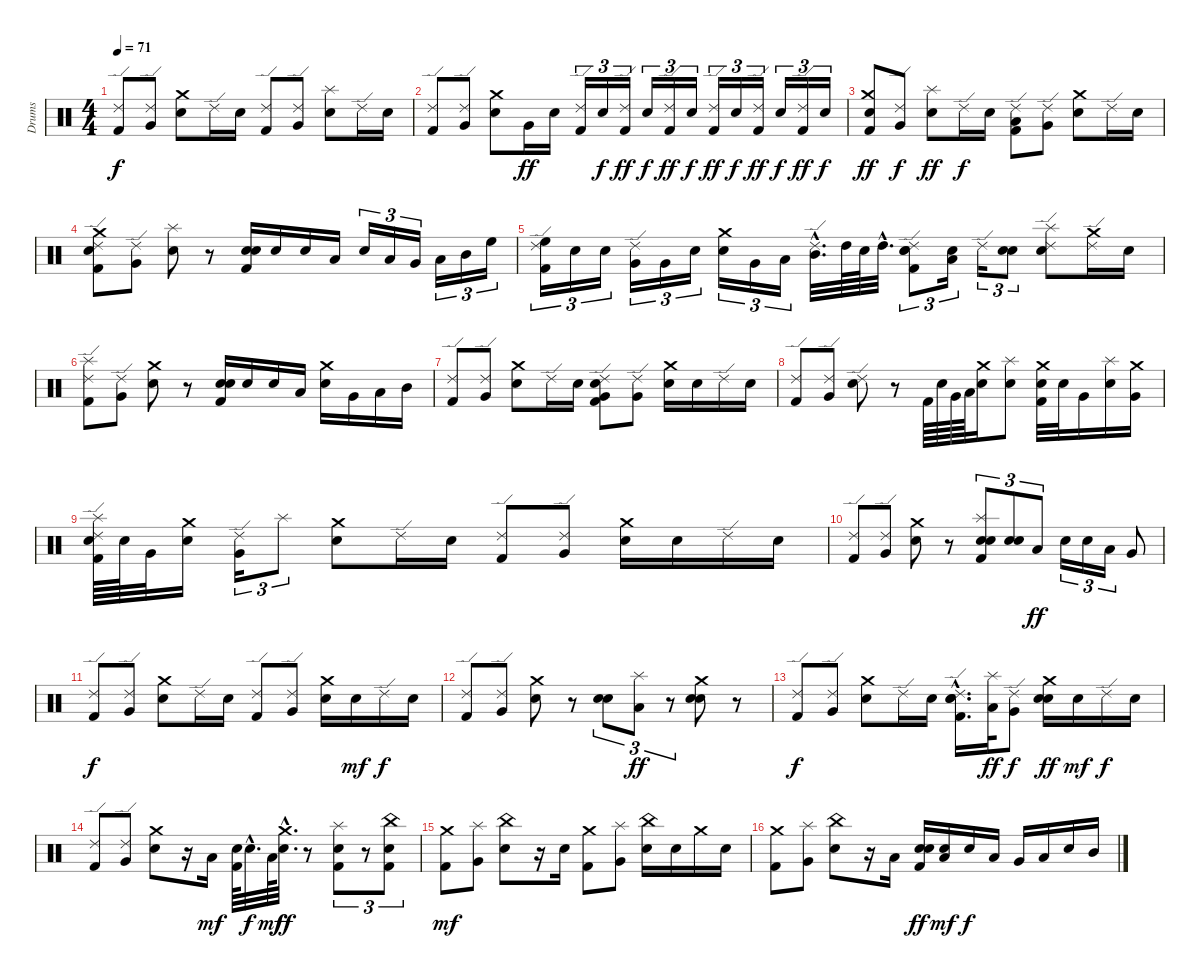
\track ("Drums" "Drums") {instrument percussion}
\staff {score}
\articulation defaults
\ts (4 4)
\tempo 71
\clef neutral
\ks c
("Ride (edge) 2" "Kick (hit) 2").8{dy f} ("Ride (edge) 2" "Very Low Tom (hit)").8 ("Crash medium (hit)" "Electric Snare (hit)").8 "Ride (edge) 2".16 "Electric Snare (hit)".16 ("Ride (edge) 2" "Kick (hit) 2").8 ("Ride (edge) 2" "Very Low Tom (hit)").8 ("Splash (hit)" "Electric Snare (hit)").8 "Ride (edge) 2".16 "Electric Snare (hit)".16 |
("Ride (edge) 2" "Kick (hit) 2").8 ("Ride (edge) 2" "Very Low Tom (hit)").8 ("Crash medium (hit)" "Electric Snare (hit)").8 "Very Low Tom (hit)".16{dy ff} "Electric Snare (hit)".16 ("Ride (edge) 2" "Kick (hit) 2").16{tu (3 2)} "Electric Snare (hit)".16{tu (3 2) dy f} ("Ride (edge) 2" "Kick (hit) 2").16{tu (3 2) dy ff} "Electric Snare (hit)".16{tu (3 2) dy f} ("Ride (edge) 2" "Kick (hit) 2").16{tu (3 2) dy ff} "Electric Snare (hit)".16{tu (3 2) dy f} ("Ride (edge) 2" "Kick (hit) 2").16{tu (3 2) dy ff} "Electric Snare (hit)".16{tu (3 2) dy f} ("Ride (edge) 2" "Kick (hit) 2").16{tu (3 2) dy ff} "Electric Snare (hit)".16{tu (3 2) dy f} ("Ride (edge) 2" "Kick (hit) 2").16{tu (3 2) dy ff} "Electric Snare (hit)".16{tu (3 2) dy f} |
("Crash medium (hit)" "Electric Snare (hit)" "Kick (hit) 2").8{dy ff} ("Ride (edge) 2" "Very Low Tom (hit)").8{dy f} ("Splash (hit)" "Electric Snare (hit)").8{dy ff} "Ride (edge) 2".16{dy f} "Electric Snare (hit)".16 ("Ride (edge) 2" "Low Floor Tom (hit)" "Kick (hit) 2").8 ("Ride (edge) 2" "Very Low Tom (hit)").8 ("Crash medium (hit)" "Electric Snare (hit)").8 "Ride (edge) 2".16 "Electric Snare (hit)".16 |
("Ride (edge) 2" "Crash medium (hit)" "Snare (hit) 2" "Kick (hit) 2").8 ("Ride (edge) 2" "Very Low Tom (hit)").8 ("Splash (hit)" "Electric Snare (hit)").8 r.8 ("Snare (hit) 2" "Electric Snare (hit)" "Kick (hit) 2").16 "Electric Snare (hit)".16 "Snare (hit) 2".16 "Low Floor Tom (hit)".16 "Snare (hit) 2".16{tu (3 2)} "Low Floor Tom (hit)".16{tu (3 2)} "Very Low Tom (hit)".16{tu (3 2)} "Low Tom (hit)".16{tu (3 2)} "Mid Tom (hit)".16{tu (3 2)} "High Floor Tom (hit)".16{tu (3 2)} |
("Ride (edge) 2" "High Floor Tom (hit)" "Kick (hit) 2").16{tu (3 2)} "Electric Snare (hit)".16{tu (3 2)} "Electric Snare (hit)".16{tu (3 2)} ("Ride (edge) 2" "Very Low Tom (hit)").16{tu (3 2)} "Very Low Tom (hit)".16{tu (3 2)} "Electric Snare (hit)".16{tu (3 2)} ("Crash medium (hit)" "Electric Snare (hit)").16{tu (3 2)} "Very Low Tom (hit)".16{tu (3 2)} "Low Tom (hit)".16{tu (3 2)} ("Ride (edge) 2"{hac} "Mid Tom (hit)"{hac}).32{d} "High Tom (hit)".64 "Electric Snare (hit)".64 "High Tom (hit)"{hac}.32{d} ("Ride (edge) 2" "Snare (hit) 2" "Electric Snare (hit)" "Kick (hit) 2").8{tu (3 2)} ("Snare (hit) 2" "Low Floor Tom (hit)").16{tu (3 2)} "Ride (edge) 2".16{tu (3 2)} ("Snare (hit) 2" "Electric Snare (hit)").8{tu (3 2)} ("Ride (edge) 2" "Splash (hit)" "Electric Snare (hit)").8 ("Ride (edge) 2" "Crash medium (hit)").16 "Electric Snare (hit)".16 |
("Ride (edge) 2" "Splash (hit)" "Kick (hit) 2").8 ("Ride (edge) 2" "Very Low Tom (hit)").8 ("Crash medium (hit)" "Electric Snare (hit)").8 r.8 ("Snare (hit) 2" "Electric Snare (hit)" "Kick (hit) 2").16 "Electric Snare (hit)".16 "Snare (hit) 2".16 "Low Floor Tom (hit)".16 ("Crash medium (hit)" "Snare (hit) 2").16 "Very Low Tom (hit)".16 "Low Tom (hit)".16 "Mid Tom (hit)".16 |
("Ride (edge) 2" "Kick (hit) 2").8 ("Ride (edge) 2" "Very Low Tom (hit)").8 ("Crash medium (hit)" "Electric Snare (hit)").8 "Ride (edge) 2".16 "Electric Snare (hit)".16 ("Ride (edge) 2" "Electric Snare (hit)" "Very Low Tom (hit)" "Kick (hit) 2").8 ("Ride (edge) 2" "Very Low Tom (hit)").8 ("Crash medium (hit)" "Electric Snare (hit)").16 "Snare (hit) 2".16 "Ride (edge) 2".16 "Electric Snare (hit)".16 |
("Ride (edge) 2" "Kick (hit) 2").8 ("Ride (edge) 2" "Very Low Tom (hit)").8 ("Ride (edge) 2" "Electric Snare (hit)").8 r.8 "Kick (hit) 2".64 "Electric Snare (hit)".64 "Very Low Tom (hit)".64 "Low Tom (hit)".64 ("Crash medium (hit)" "Snare (hit) 2").16 ("Splash (hit)" "Electric Snare (hit)").8 ("Crash medium (hit)" "Snare (hit) 2" "Kick (hit) 2").32 "Electric Snare (hit)".32 "Very Low Tom (hit)".16 ("Splash (hit)" "Electric Snare (hit)").16 ("Crash medium (hit)" "Very Low Tom (hit)").16 |
("Ride (edge) 2" "Splash (hit)" "Snare (hit) 2" "Kick (hit) 2").64 "Electric Snare (hit)".64 "Very Low Tom (hit)".32 ("Crash medium (hit)" "Electric Snare (hit)").16 ("Ride (edge) 2" "Very Low Tom (hit)").16{tu (3 2)} "Splash (hit)".8{tu (3 2)} ("Crash medium (hit)" "Electric Snare (hit)").8 "Ride (edge) 2".16 "Electric Snare (hit)".16 ("Ride (edge) 2" "Kick (hit) 2").8 ("Ride (edge) 2" "Very Low Tom (hit)").8 ("Crash medium (hit)" "Electric Snare (hit)").16 "Snare (hit) 2".16 "Ride (edge) 2".16 "Electric Snare (hit)".16 |
("Ride (edge) 2" "Kick (hit) 2").8 ("Ride (edge) 2" "Very Low Tom (hit)").8 ("Crash medium (hit)" "Electric Snare (hit)").8 r.8 ("Splash (hit)" "Snare (hit) 2" "Electric Snare (hit)" "Kick (hit) 2").8{tu (3 2)} ("Snare (hit) 2" "Electric Snare (hit)").8{tu (3 2)} "Low Floor Tom (hit)".8{tu (3 2) dy ff} "Snare (hit) 2".16{tu (3 2)} "Snare (hit) 2".16{tu (3 2)} "Low Floor Tom (hit)".16{tu (3 2)} "Very Low Tom (hit)".8 |
("Ride (edge) 2" "Kick (hit) 2").8{dy f} ("Ride (edge) 2" "Very Low Tom (hit)").8 ("Crash medium (hit)" "Electric Snare (hit)").8 "Ride (edge) 2".16 "Electric Snare (hit)".16 ("Ride (edge) 2" "Kick (hit) 2").8 ("Ride (edge) 2" "Very Low Tom (hit)").8 ("Crash medium (hit)" "Electric Snare (hit)").16 "Snare (hit) 2".16{dy mf} "Ride (edge) 2".16{dy f} "Electric Snare (hit)".16 |
("Ride (edge) 2" "Kick (hit) 2").8 ("Ride (edge) 2" "Very Low Tom (hit)").8 ("Crash medium (hit)" "Electric Snare (hit)").8 r.8 ("Snare (hit) 2" "Electric Snare (hit)").8{tu (3 2)} ("Splash (hit)" "Low Floor Tom (hit)").8{tu (3 2) dy ff} r.8{tu (3 2)} ("Crash medium (hit)" "Snare (hit) 2" "Electric Snare (hit)").8 r.8 |
("Ride (edge) 2" "Kick (hit) 2").8{dy f} ("Ride (edge) 2" "Very Low Tom (hit)").8 ("Crash medium (hit)" "Electric Snare (hit)").8 "Ride (edge) 2".16 "Electric Snare (hit)".16 ("Ride (edge) 2"{hac} "Snare (hit) 2"{hac} "Electric Snare (hit)"{hac} "Kick (hit) 2"{hac}).16{d} ("Splash (hit)" "Low Floor Tom (hit)").32{dy ff} ("Ride (edge) 2" "Very Low Tom (hit)").8{dy f} ("Crash medium (hit)" "Snare (hit) 2" "Electric Snare (hit)").16{dy ff} "Electric Snare (hit)".16{dy mf} "Ride (edge) 2".16{dy f} "Electric Snare (hit)".16 |
("Ride (edge) 2" "Kick (hit) 2").8 ("Ride (edge) 2" "Very Low Tom (hit)").8 ("Crash medium (hit)" "Electric Snare (hit)").8 r.16 "Low Floor Tom (hit)".16{dy mf} ("Snare (hit) 2" "Kick (hit) 2").64 "Electric Snare (hit)"{hac}.32{d dy f} "Low Floor Tom (hit)".64{dy mf} ("Crash medium (hit)"{hac} "Electric Snare (hit)"{hac}).32{d dy ff} r.8 ("Splash (hit)" "Snare (hit) 2" "Kick (hit) 2").8{tu (3 2)} r.8{tu (3 2)} ("China (hit)" "Snare (hit) 2" "Kick (hit) 2").8{tu (3 2)} |
("Crash medium (hit)" "Kick (hit) 2").8{dy mf} ("Splash (hit)" "Very Low Tom (hit)").8 ("China (hit)" "Electric Snare (hit)").8 r.16 "Electric Snare (hit)".16 ("Crash medium (hit)" "Kick (hit) 2").8 ("Splash (hit)" "Very Low Tom (hit)").8 ("China (hit)" "Snare (hit) 2").16 "Electric Snare (hit)".16 "Crash medium (hit)".16 "Electric Snare (hit)".16 |
("Crash medium (hit)" "Kick (hit) 2").8 ("Splash (hit)" "Very Low Tom (hit)").8 ("China (hit)" "Electric Snare (hit)").8 r.16 "Low Floor Tom (hit)".16 ("Snare (hit) 2" "Electric Snare (hit)" "Kick (hit) 2").16{dy ff} ("Electric Snare (hit)" "Low Floor Tom (hit)").16{dy mf} "Electric Snare (hit)".16{dy f} "Low Floor Tom (hit)".16 "Very Low Tom (hit)".16 "Low Tom (hit)".16 "Electric Snare (hit)".16 "Mid Tom (hit)".16
